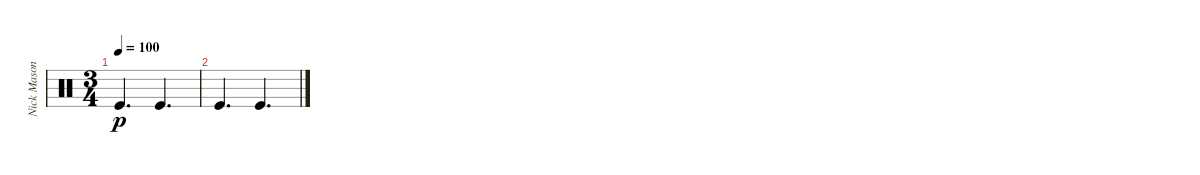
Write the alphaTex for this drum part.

\track ("Nick Mason" "Nick Mason") {instrument percussion}
\staff {score}
\articulation defaults
\ts (3 4)
\tempo 100
\clef neutral
\ks c "Kick (hit)".4{d dy p} "Kick (hit)".4{d}
|
"Kick (hit)".4{d} "Kick (hit)".4{d}
